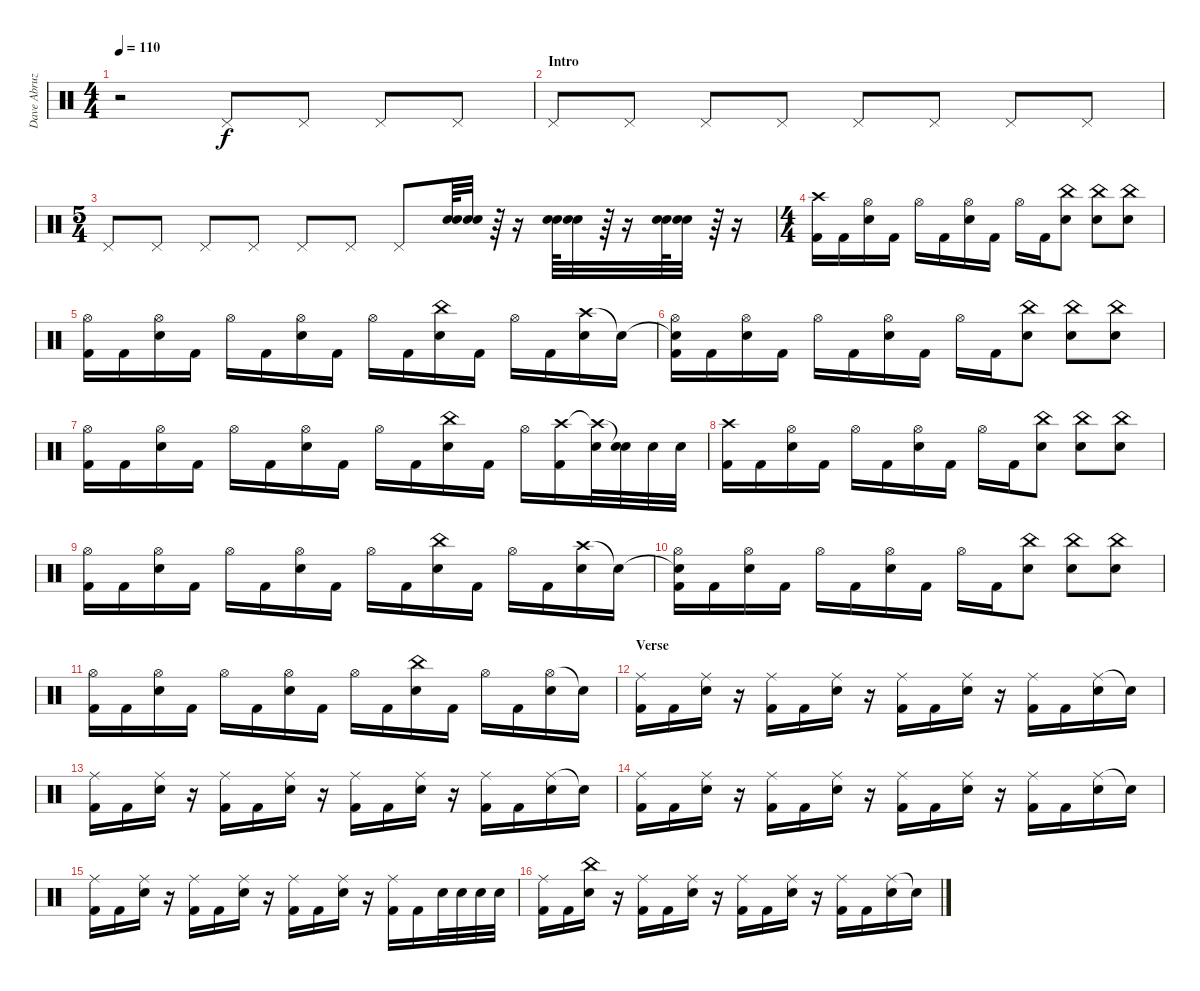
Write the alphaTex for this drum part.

\track ("Dave Abruzzese" "Dave Abruz") {instrument percussion}
\staff {score}
\articulation defaults
\ts (4 4)
\tempo 110
\clef neutral
\ks c
r.2{dy f} "Pedal Hi-Hat (hit)".8 "Pedal Hi-Hat (hit)".8 "Pedal Hi-Hat (hit)".8 "Pedal Hi-Hat (hit)".8 |
\section ("" "Intro")
"Pedal Hi-Hat (hit)".8 "Pedal Hi-Hat (hit)".8 "Pedal Hi-Hat (hit)".8 "Pedal Hi-Hat (hit)".8 "Pedal Hi-Hat (hit)".8 "Pedal Hi-Hat (hit)".8 "Pedal Hi-Hat (hit)".8 "Pedal Hi-Hat (hit)".8 |
\ts (5 4)
"Pedal Hi-Hat (hit)".8 "Pedal Hi-Hat (hit)".8 "Pedal Hi-Hat (hit)".8 "Pedal Hi-Hat (hit)".8 "Pedal Hi-Hat (hit)".8 "Pedal Hi-Hat (hit)".8 "Pedal Hi-Hat (hit)".8 ("Electric Snare (hit)" "Electric Snare (hit)").64 ("Electric Snare (hit)" "Electric Snare (hit)").32 r.64 r.16 ("Electric Snare (hit)" "Electric Snare (hit)").64 ("Electric Snare (hit)" "Electric Snare (hit)").32 r.64 r.16 ("Electric Snare (hit)" "Electric Snare (hit)").64 ("Electric Snare (hit)" "Electric Snare (hit)").32 r.64 r.16 |
\ts (4 4)
("Crash high (hit)" "Kick (hit) 2").16 "Kick (hit) 2".16 ("Hi-Hat (open)" "Electric Snare (hit)").16 "Kick (hit) 2".16 "Hi-Hat (open)".16 "Kick (hit) 2".16 ("Hi-Hat (open)" "Electric Snare (hit)").16 "Kick (hit) 2".16 "Hi-Hat (open)".16 "Kick (hit) 2".16 ("China (hit)" "Electric Snare (hit)").8 ("China (hit)" "Electric Snare (hit)").8 ("China (hit)" "Electric Snare (hit)").8 |
("Hi-Hat (open)" "Kick (hit) 2").16 "Kick (hit) 2".16 ("Hi-Hat (open)" "Electric Snare (hit)").16 "Kick (hit) 2".16 "Hi-Hat (open)".16 "Kick (hit) 2".16 ("Hi-Hat (open)" "Electric Snare (hit)").16 "Kick (hit) 2".16 "Hi-Hat (open)".16 "Kick (hit) 2".16 ("China (hit)" "Electric Snare (hit)").16 "Kick (hit) 2".16 "Hi-Hat (open)".16 "Kick (hit) 2".16 ("Crash high (hit)" "Electric Snare (hit)").16 "Snare (hit)"{t}.16 |
("Snare (hit)"{t} "Hi-Hat (open)" "Kick (hit) 2").16 "Kick (hit) 2".16 ("Hi-Hat (open)" "Electric Snare (hit)").16 "Kick (hit) 2".16 "Hi-Hat (open)".16 "Kick (hit) 2".16 ("Hi-Hat (open)" "Electric Snare (hit)").16 "Kick (hit) 2".16 "Hi-Hat (open)".16 "Kick (hit) 2".16 ("China (hit)" "Electric Snare (hit)").8 ("China (hit)" "Electric Snare (hit)").8 ("China (hit)" "Electric Snare (hit)").8 |
("Hi-Hat (open)" "Kick (hit) 2").16 "Kick (hit) 2".16 ("Hi-Hat (open)" "Electric Snare (hit)").16 "Kick (hit) 2".16 "Hi-Hat (open)".16 "Kick (hit) 2".16 ("Hi-Hat (open)" "Electric Snare (hit)").16 "Kick (hit) 2".16 "Hi-Hat (open)".16 "Kick (hit) 2".16 ("China (hit)" "Electric Snare (hit)").16 "Kick (hit) 2".16 "Hi-Hat (open)".16 ("Crash high (hit)" "Kick (hit) 2").16 ("Crash high (hit)"{t} "Electric Snare (hit)").32 ("Snare (hit)"{t} "Electric Snare (hit)").32 "Electric Snare (hit)".32 "Electric Snare (hit)".32 |
("Crash high (hit)" "Kick (hit) 2").16 "Kick (hit) 2".16 ("Hi-Hat (open)" "Electric Snare (hit)").16 "Kick (hit) 2".16 "Hi-Hat (open)".16 "Kick (hit) 2".16 ("Hi-Hat (open)" "Electric Snare (hit)").16 "Kick (hit) 2".16 "Hi-Hat (open)".16 "Kick (hit) 2".16 ("China (hit)" "Electric Snare (hit)").8 ("China (hit)" "Electric Snare (hit)").8 ("China (hit)" "Electric Snare (hit)").8 |
("Hi-Hat (open)" "Kick (hit) 2").16 "Kick (hit) 2".16 ("Hi-Hat (open)" "Electric Snare (hit)").16 "Kick (hit) 2".16 "Hi-Hat (open)".16 "Kick (hit) 2".16 ("Hi-Hat (open)" "Electric Snare (hit)").16 "Kick (hit) 2".16 "Hi-Hat (open)".16 "Kick (hit) 2".16 ("China (hit)" "Electric Snare (hit)").16 "Kick (hit) 2".16 "Hi-Hat (open)".16 "Kick (hit) 2".16 ("Crash high (hit)" "Electric Snare (hit)").16 "Snare (hit)"{t}.16 |
("Snare (hit)"{t} "Hi-Hat (open)" "Kick (hit) 2").16 "Kick (hit) 2".16 ("Hi-Hat (open)" "Electric Snare (hit)").16 "Kick (hit) 2".16 "Hi-Hat (open)".16 "Kick (hit) 2".16 ("Hi-Hat (open)" "Electric Snare (hit)").16 "Kick (hit) 2".16 "Hi-Hat (open)".16 "Kick (hit) 2".16 ("China (hit)" "Electric Snare (hit)").8 ("China (hit)" "Electric Snare (hit)").8 ("China (hit)" "Electric Snare (hit)").8 |
("Hi-Hat (open)" "Kick (hit) 2").16 "Kick (hit) 2".16 ("Hi-Hat (open)" "Electric Snare (hit)").16 "Kick (hit) 2".16 "Hi-Hat (open)".16 "Kick (hit) 2".16 ("Hi-Hat (open)" "Electric Snare (hit)").16 "Kick (hit) 2".16 "Hi-Hat (open)".16 "Kick (hit) 2".16 ("China (hit)" "Electric Snare (hit)").16 "Kick (hit) 2".16 "Hi-Hat (open)".16 "Kick (hit) 2".16 ("Hi-Hat (open)" "Electric Snare (hit)").16 "Snare (hit)"{t}.16 |
\section ("" "Verse")
("Ride (middle)" "Kick (hit) 2").16 "Kick (hit) 2".16 ("Ride (middle)" "Electric Snare (hit)").16 r.16 ("Ride (middle)" "Kick (hit) 2").16 "Kick (hit) 2".16 ("Ride (middle)" "Electric Snare (hit)").16 r.16 ("Ride (middle)" "Kick (hit) 2").16 "Kick (hit) 2".16 ("Ride (middle)" "Electric Snare (hit)").16 r.16 ("Ride (middle)" "Kick (hit) 2").16 "Kick (hit) 2".16 ("Ride (middle)" "Electric Snare (hit)").16 "Snare (hit)"{t}.16 |
("Ride (middle)" "Kick (hit) 2").16 "Kick (hit) 2".16 ("Ride (middle)" "Electric Snare (hit)").16 r.16 ("Ride (middle)" "Kick (hit) 2").16 "Kick (hit) 2".16 ("Ride (middle)" "Electric Snare (hit)").16 r.16 ("Ride (middle)" "Kick (hit) 2").16 "Kick (hit) 2".16 ("Ride (middle)" "Electric Snare (hit)").16 r.16 ("Ride (middle)" "Kick (hit) 2").16 "Kick (hit) 2".16 ("Ride (middle)" "Electric Snare (hit)").16 "Snare (hit)"{t}.16 |
("Ride (middle)" "Kick (hit) 2").16 "Kick (hit) 2".16 ("Ride (middle)" "Electric Snare (hit)").16 r.16 ("Ride (middle)" "Kick (hit) 2").16 "Kick (hit) 2".16 ("Ride (middle)" "Electric Snare (hit)").16 r.16 ("Ride (middle)" "Kick (hit) 2").16 "Kick (hit) 2".16 ("Ride (middle)" "Electric Snare (hit)").16 r.16 ("Ride (middle)" "Kick (hit) 2").16 "Kick (hit) 2".16 ("Ride (middle)" "Electric Snare (hit)").16 "Snare (hit)"{t}.16 |
("Ride (middle)" "Kick (hit) 2").16 "Kick (hit) 2".16 ("Ride (middle)" "Electric Snare (hit)").16 r.16 ("Ride (middle)" "Kick (hit) 2").16 "Kick (hit) 2".16 ("Ride (middle)" "Electric Snare (hit)").16 r.16 ("Ride (middle)" "Kick (hit) 2").16 "Kick (hit) 2".16 ("Ride (middle)" "Electric Snare (hit)").16 r.16 ("Ride (middle)" "Kick (hit) 2").16 "Kick (hit) 2".16 "Electric Snare (hit)".32 "Electric Snare (hit)".32 "Electric Snare (hit)".32 "Electric Snare (hit)".32 |
("Ride (middle)" "Kick (hit) 2").16 "Kick (hit) 2".16 ("China (hit)" "Electric Snare (hit)").16 r.16 ("Ride (middle)" "Kick (hit) 2").16 "Kick (hit) 2".16 ("Ride (middle)" "Electric Snare (hit)").16 r.16 ("Ride (middle)" "Kick (hit) 2").16 "Kick (hit) 2".16 ("Ride (middle)" "Electric Snare (hit)").16 r.16 ("Ride (middle)" "Kick (hit) 2").16 "Kick (hit) 2".16 ("Ride (middle)" "Electric Snare (hit)").16 "Snare (hit)"{t}.16
